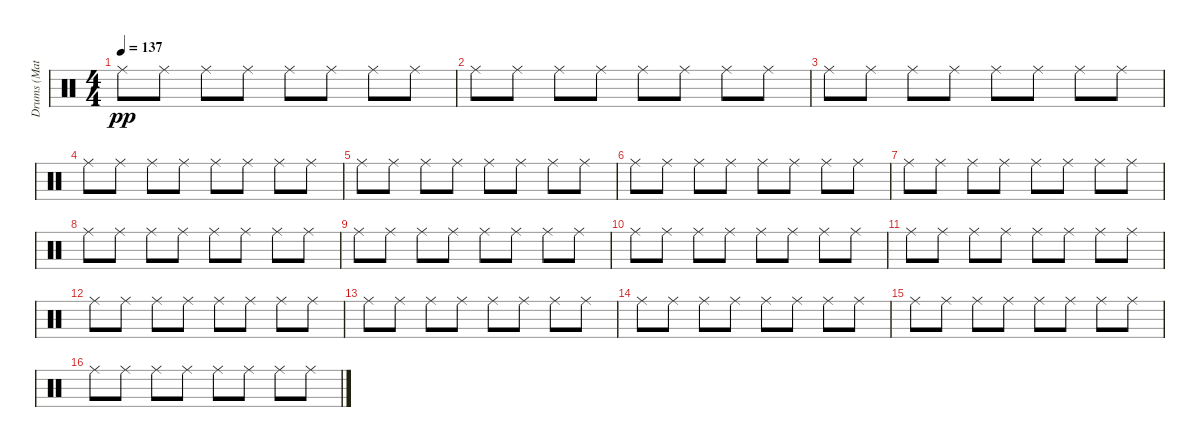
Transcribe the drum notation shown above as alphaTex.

\track ("Drums (Matthias)" "Drums (Mat") {instrument percussion}
\staff {score}
\articulation defaults
\ts (4 4)
\tempo 137
\clef neutral
\ks c "Ride (middle)".8{dy pp} "Ride (middle)".8 "Ride (middle)".8 "Ride (middle)".8 "Ride (middle)".8 "Ride (middle)".8 "Ride (middle)".8 "Ride (middle)".8
|
"Ride (middle)".8 "Ride (middle)".8 "Ride (middle)".8 "Ride (middle)".8 "Ride (middle)".8 "Ride (middle)".8 "Ride (middle)".8 "Ride (middle)".8 |
"Ride (middle)".8 "Ride (middle)".8 "Ride (middle)".8 "Ride (middle)".8 "Ride (middle)".8 "Ride (middle)".8 "Ride (middle)".8 "Ride (middle)".8 |
"Ride (middle)".8 "Ride (middle)".8 "Ride (middle)".8 "Ride (middle)".8 "Ride (middle)".8 "Ride (middle)".8 "Ride (middle)".8 "Ride (middle)".8 |
"Ride (middle)".8 "Ride (middle)".8 "Ride (middle)".8 "Ride (middle)".8 "Ride (middle)".8 "Ride (middle)".8 "Ride (middle)".8 "Ride (middle)".8 |
"Ride (middle)".8 "Ride (middle)".8 "Ride (middle)".8 "Ride (middle)".8 "Ride (middle)".8 "Ride (middle)".8 "Ride (middle)".8 "Ride (middle)".8 |
"Ride (middle)".8 "Ride (middle)".8 "Ride (middle)".8 "Ride (middle)".8 "Ride (middle)".8 "Ride (middle)".8 "Ride (middle)".8 "Ride (middle)".8 |
"Ride (middle)".8 "Ride (middle)".8 "Ride (middle)".8 "Ride (middle)".8 "Ride (middle)".8 "Ride (middle)".8 "Ride (middle)".8 "Ride (middle)".8 |
"Ride (middle)".8 "Ride (middle)".8 "Ride (middle)".8 "Ride (middle)".8 "Ride (middle)".8 "Ride (middle)".8 "Ride (middle)".8 "Ride (middle)".8 |
"Ride (middle)".8 "Ride (middle)".8 "Ride (middle)".8 "Ride (middle)".8 "Ride (middle)".8 "Ride (middle)".8 "Ride (middle)".8 "Ride (middle)".8 |
"Ride (middle)".8 "Ride (middle)".8 "Ride (middle)".8 "Ride (middle)".8 "Ride (middle)".8 "Ride (middle)".8 "Ride (middle)".8 "Ride (middle)".8 |
"Ride (middle)".8 "Ride (middle)".8 "Ride (middle)".8 "Ride (middle)".8 "Ride (middle)".8 "Ride (middle)".8 "Ride (middle)".8 "Ride (middle)".8 |
"Ride (middle)".8 "Ride (middle)".8 "Ride (middle)".8 "Ride (middle)".8 "Ride (middle)".8 "Ride (middle)".8 "Ride (middle)".8 "Ride (middle)".8 |
"Ride (middle)".8 "Ride (middle)".8 "Ride (middle)".8 "Ride (middle)".8 "Ride (middle)".8 "Ride (middle)".8 "Ride (middle)".8 "Ride (middle)".8 |
"Ride (middle)".8 "Ride (middle)".8 "Ride (middle)".8 "Ride (middle)".8 "Ride (middle)".8 "Ride (middle)".8 "Ride (middle)".8 "Ride (middle)".8 |
"Ride (middle)".8 "Ride (middle)".8 "Ride (middle)".8 "Ride (middle)".8 "Ride (middle)".8 "Ride (middle)".8 "Ride (middle)".8 "Ride (middle)".8
